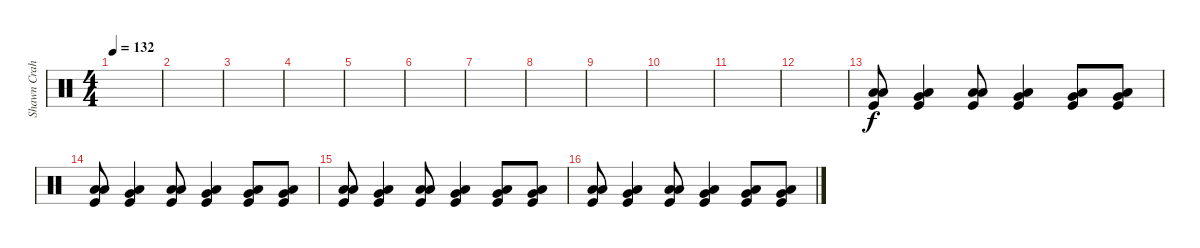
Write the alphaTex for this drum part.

\track ("Shawn Crahan" "Shawn Crah") {instrument percussion}
\staff {score}
\articulation defaults
\ts (4 4)
\tempo 132
\clef neutral
\ks c
|
|
|
|
|
|
|
|
|
|
|
|
("Low Floor Tom (hit)" "Kick (hit)" "Low Tom (hit)").8 ("Low Floor Tom (hit)" "Kick (hit)" "Very Low Tom (hit)").4 ("Low Floor Tom (hit)" "Kick (hit)" "Low Tom (hit)").8 ("Low Floor Tom (hit)" "Kick (hit)" "Very Low Tom (hit)").4 ("Low Floor Tom (hit)" "Kick (hit)" "Very Low Tom (hit)").8 ("Low Floor Tom (hit)" "Kick (hit)" "Very Low Tom (hit)").8 |
("Low Floor Tom (hit)" "Kick (hit)" "Low Tom (hit)").8 ("Low Floor Tom (hit)" "Kick (hit)" "Very Low Tom (hit)").4 ("Low Floor Tom (hit)" "Kick (hit)" "Low Tom (hit)").8 ("Low Floor Tom (hit)" "Kick (hit)" "Very Low Tom (hit)").4 ("Low Floor Tom (hit)" "Kick (hit)" "Very Low Tom (hit)").8 ("Low Floor Tom (hit)" "Kick (hit)" "Very Low Tom (hit)").8 |
("Low Floor Tom (hit)" "Kick (hit)" "Low Tom (hit)").8 ("Low Floor Tom (hit)" "Kick (hit)" "Very Low Tom (hit)").4 ("Low Floor Tom (hit)" "Kick (hit)" "Low Tom (hit)").8 ("Low Floor Tom (hit)" "Kick (hit)" "Very Low Tom (hit)").4 ("Low Floor Tom (hit)" "Kick (hit)" "Very Low Tom (hit)").8 ("Low Floor Tom (hit)" "Kick (hit)" "Very Low Tom (hit)").8 |
("Low Floor Tom (hit)" "Kick (hit)" "Low Tom (hit)").8 ("Low Floor Tom (hit)" "Kick (hit)" "Very Low Tom (hit)").4 ("Low Floor Tom (hit)" "Kick (hit)" "Low Tom (hit)").8 ("Low Floor Tom (hit)" "Kick (hit)" "Very Low Tom (hit)").4 ("Low Floor Tom (hit)" "Kick (hit)" "Very Low Tom (hit)").8 ("Low Floor Tom (hit)" "Kick (hit)" "Very Low Tom (hit)").8
